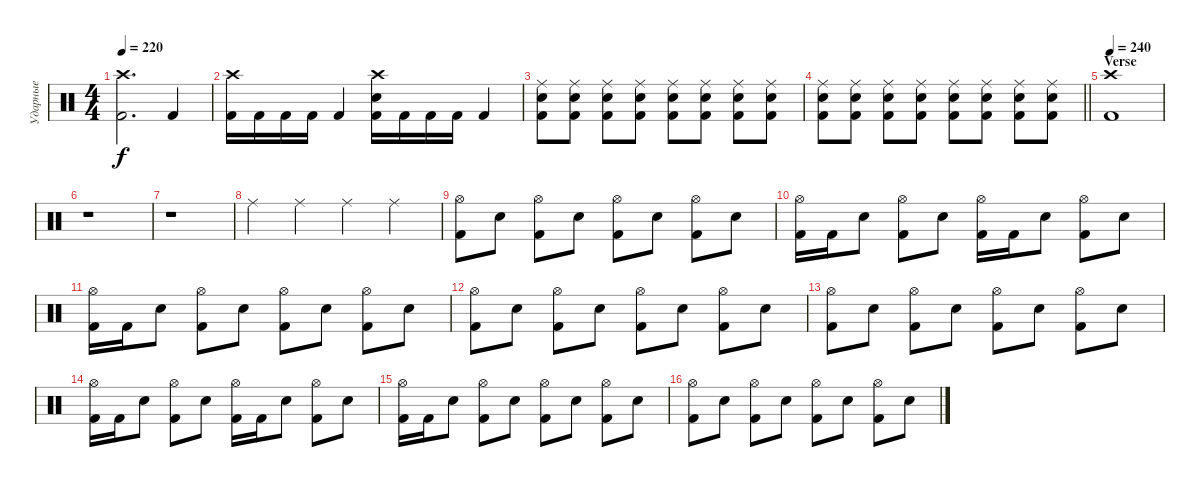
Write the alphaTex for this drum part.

\track ("Ударные" "Ударные") {instrument percussion}
\staff {score}
\articulation defaults
\ts (4 4)
\tempo 220
\clef neutral
\ks c
("Crash high (hit)" "Kick (hit) 2").2{d dy f} "Kick (hit) 2".4 |
("Crash high (hit)" "Kick (hit) 2").16 "Kick (hit) 2".16 "Kick (hit) 2".16 "Kick (hit) 2".16 "Kick (hit) 2".4 ("Crash high (hit)" "Electric Snare (hit)" "Kick (hit) 2").16 "Kick (hit) 2".16 "Kick (hit) 2".16 "Kick (hit) 2".16 "Kick (hit) 2".4 |
("Ride (middle)" "Electric Snare (hit)" "Kick (hit) 2").8 ("Ride (middle)" "Electric Snare (hit)" "Kick (hit) 2").8 ("Ride (middle)" "Electric Snare (hit)" "Kick (hit) 2").8 ("Ride (middle)" "Electric Snare (hit)" "Kick (hit) 2").8 ("Ride (middle)" "Electric Snare (hit)" "Kick (hit) 2").8 ("Ride (middle)" "Electric Snare (hit)" "Kick (hit) 2").8 ("Ride (middle)" "Electric Snare (hit)" "Kick (hit) 2").8 ("Ride (middle)" "Electric Snare (hit)" "Kick (hit) 2").8 |
\barLineRight lightlight
("Ride (middle)" "Electric Snare (hit)" "Kick (hit) 2").8 ("Ride (middle)" "Electric Snare (hit)" "Kick (hit) 2").8 ("Ride (middle)" "Electric Snare (hit)" "Kick (hit) 2").8 ("Ride (middle)" "Electric Snare (hit)" "Kick (hit) 2").8 ("Ride (middle)" "Electric Snare (hit)" "Kick (hit) 2").8 ("Ride (middle)" "Electric Snare (hit)" "Kick (hit) 2").8 ("Ride (middle)" "Electric Snare (hit)" "Kick (hit) 2").8 ("Ride (middle)" "Electric Snare (hit)" "Kick (hit) 2").8 |
\section ("" "Verse")
\tempo 240
("Crash high (hit)" "Kick (hit) 2").1 |
r.1 |
r.1 |
"Ride (middle)".4 "Ride (middle)".4 "Ride (middle)".4 "Ride (middle)".4 |
("Hi-Hat (open)" "Kick (hit) 2").8 "Electric Snare (hit)".8 ("Hi-Hat (open)" "Kick (hit) 2").8 "Electric Snare (hit)".8 ("Hi-Hat (open)" "Kick (hit) 2").8 "Electric Snare (hit)".8 ("Hi-Hat (open)" "Kick (hit) 2").8 "Electric Snare (hit)".8 |
("Hi-Hat (open)" "Kick (hit) 2").16 "Kick (hit) 2".16 "Electric Snare (hit)".8 ("Hi-Hat (open)" "Kick (hit) 2").8 "Electric Snare (hit)".8 ("Hi-Hat (open)" "Kick (hit) 2").16 "Kick (hit) 2".16 "Electric Snare (hit)".8 ("Hi-Hat (open)" "Kick (hit) 2").8 "Electric Snare (hit)".8 |
("Hi-Hat (open)" "Kick (hit) 2").16 "Kick (hit) 2".16 "Electric Snare (hit)".8 ("Hi-Hat (open)" "Kick (hit) 2").8 "Electric Snare (hit)".8 ("Hi-Hat (open)" "Kick (hit) 2").8 "Electric Snare (hit)".8 ("Hi-Hat (open)" "Kick (hit) 2").8 "Electric Snare (hit)".8 |
("Hi-Hat (open)" "Kick (hit) 2").8 "Electric Snare (hit)".8 ("Hi-Hat (open)" "Kick (hit) 2").8 "Electric Snare (hit)".8 ("Hi-Hat (open)" "Kick (hit) 2").8 "Electric Snare (hit)".8 ("Hi-Hat (open)" "Kick (hit) 2").8 "Electric Snare (hit)".8 |
("Hi-Hat (open)" "Kick (hit) 2").8 "Electric Snare (hit)".8 ("Hi-Hat (open)" "Kick (hit) 2").8 "Electric Snare (hit)".8 ("Hi-Hat (open)" "Kick (hit) 2").8 "Electric Snare (hit)".8 ("Hi-Hat (open)" "Kick (hit) 2").8 "Electric Snare (hit)".8 |
("Hi-Hat (open)" "Kick (hit) 2").16 "Kick (hit) 2".16 "Electric Snare (hit)".8 ("Hi-Hat (open)" "Kick (hit) 2").8 "Electric Snare (hit)".8 ("Hi-Hat (open)" "Kick (hit) 2").16 "Kick (hit) 2".16 "Electric Snare (hit)".8 ("Hi-Hat (open)" "Kick (hit) 2").8 "Electric Snare (hit)".8 |
("Hi-Hat (open)" "Kick (hit) 2").16 "Kick (hit) 2".16 "Electric Snare (hit)".8 ("Hi-Hat (open)" "Kick (hit) 2").8 "Electric Snare (hit)".8 ("Hi-Hat (open)" "Kick (hit) 2").8 "Electric Snare (hit)".8 ("Hi-Hat (open)" "Kick (hit) 2").8 "Electric Snare (hit)".8 |
("Hi-Hat (open)" "Kick (hit) 2").8 "Electric Snare (hit)".8 ("Hi-Hat (open)" "Kick (hit) 2").8 "Electric Snare (hit)".8 ("Hi-Hat (open)" "Kick (hit) 2").8 "Electric Snare (hit)".8 ("Hi-Hat (open)" "Kick (hit) 2").8 "Electric Snare (hit)".8
